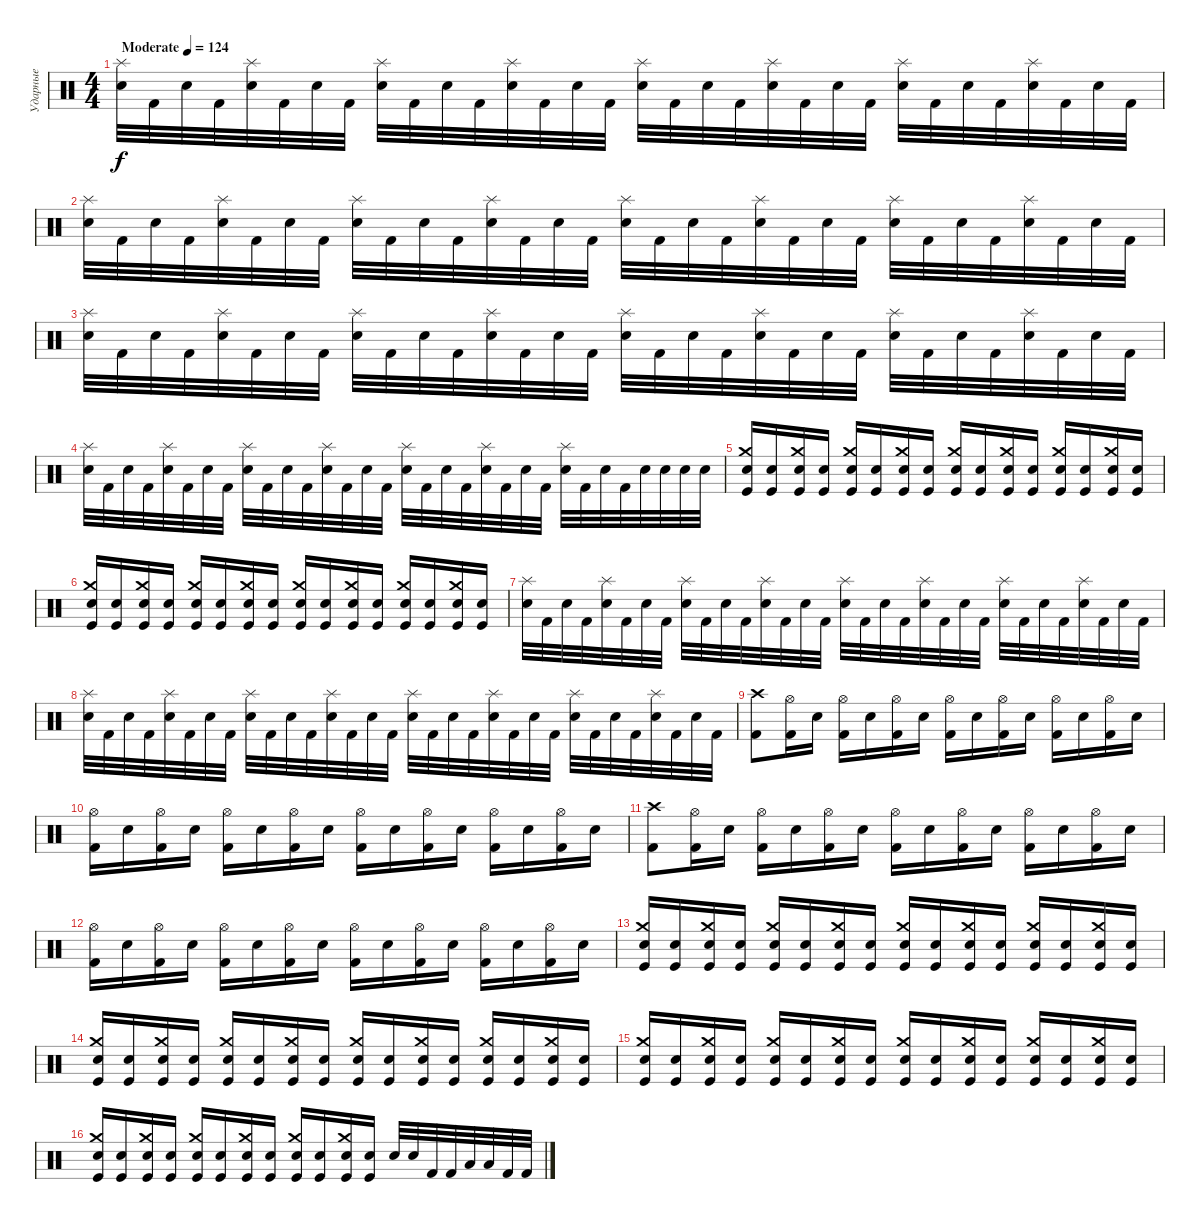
\track ("Ударные" "Ударные") {instrument percussion}
\staff {score}
\articulation defaults
\ts (4 4)
\tempo (124 "Moderate")
\clef neutral
\ks c
("Splash (hit)" "Electric Snare (hit)").32{dy f} "Kick (hit) 2".32 "Electric Snare (hit)".32 "Kick (hit) 2".32 ("Splash (hit)" "Electric Snare (hit)").32 "Kick (hit) 2".32 "Electric Snare (hit)".32 "Kick (hit) 2".32 ("Splash (hit)" "Electric Snare (hit)").32 "Kick (hit) 2".32 "Electric Snare (hit)".32 "Kick (hit) 2".32 ("Splash (hit)" "Electric Snare (hit)").32 "Kick (hit) 2".32 "Electric Snare (hit)".32 "Kick (hit) 2".32 ("Splash (hit)" "Electric Snare (hit)").32 "Kick (hit) 2".32 "Electric Snare (hit)".32 "Kick (hit) 2".32 ("Splash (hit)" "Electric Snare (hit)").32 "Kick (hit) 2".32 "Electric Snare (hit)".32 "Kick (hit) 2".32 ("Splash (hit)" "Electric Snare (hit)").32 "Kick (hit) 2".32 "Electric Snare (hit)".32 "Kick (hit) 2".32 ("Splash (hit)" "Electric Snare (hit)").32 "Kick (hit) 2".32 "Electric Snare (hit)".32 "Kick (hit) 2".32 |
("Splash (hit)" "Electric Snare (hit)").32 "Kick (hit) 2".32 "Electric Snare (hit)".32 "Kick (hit) 2".32 ("Splash (hit)" "Electric Snare (hit)").32 "Kick (hit) 2".32 "Electric Snare (hit)".32 "Kick (hit) 2".32 ("Splash (hit)" "Electric Snare (hit)").32 "Kick (hit) 2".32 "Electric Snare (hit)".32 "Kick (hit) 2".32 ("Splash (hit)" "Electric Snare (hit)").32 "Kick (hit) 2".32 "Electric Snare (hit)".32 "Kick (hit) 2".32 ("Splash (hit)" "Electric Snare (hit)").32 "Kick (hit) 2".32 "Electric Snare (hit)".32 "Kick (hit) 2".32 ("Splash (hit)" "Electric Snare (hit)").32 "Kick (hit) 2".32 "Electric Snare (hit)".32 "Kick (hit) 2".32 ("Splash (hit)" "Electric Snare (hit)").32 "Kick (hit) 2".32 "Electric Snare (hit)".32 "Kick (hit) 2".32 ("Splash (hit)" "Electric Snare (hit)").32 "Kick (hit) 2".32 "Electric Snare (hit)".32 "Kick (hit) 2".32 |
("Splash (hit)" "Electric Snare (hit)").32 "Kick (hit) 2".32 "Electric Snare (hit)".32 "Kick (hit) 2".32 ("Splash (hit)" "Electric Snare (hit)").32 "Kick (hit) 2".32 "Electric Snare (hit)".32 "Kick (hit) 2".32 ("Splash (hit)" "Electric Snare (hit)").32 "Kick (hit) 2".32 "Electric Snare (hit)".32 "Kick (hit) 2".32 ("Splash (hit)" "Electric Snare (hit)").32 "Kick (hit) 2".32 "Electric Snare (hit)".32 "Kick (hit) 2".32 ("Splash (hit)" "Electric Snare (hit)").32 "Kick (hit) 2".32 "Electric Snare (hit)".32 "Kick (hit) 2".32 ("Splash (hit)" "Electric Snare (hit)").32 "Kick (hit) 2".32 "Electric Snare (hit)".32 "Kick (hit) 2".32 ("Splash (hit)" "Electric Snare (hit)").32 "Kick (hit) 2".32 "Electric Snare (hit)".32 "Kick (hit) 2".32 ("Splash (hit)" "Electric Snare (hit)").32 "Kick (hit) 2".32 "Electric Snare (hit)".32 "Kick (hit) 2".32 |
("Splash (hit)" "Electric Snare (hit)").32 "Kick (hit) 2".32 "Electric Snare (hit)".32 "Kick (hit) 2".32 ("Splash (hit)" "Electric Snare (hit)").32 "Kick (hit) 2".32 "Electric Snare (hit)".32 "Kick (hit) 2".32 ("Splash (hit)" "Electric Snare (hit)").32 "Kick (hit) 2".32 "Electric Snare (hit)".32 "Kick (hit) 2".32 ("Splash (hit)" "Electric Snare (hit)").32 "Kick (hit) 2".32 "Electric Snare (hit)".32 "Kick (hit) 2".32 ("Splash (hit)" "Electric Snare (hit)").32 "Kick (hit) 2".32 "Electric Snare (hit)".32 "Kick (hit) 2".32 ("Splash (hit)" "Electric Snare (hit)").32 "Kick (hit) 2".32 "Electric Snare (hit)".32 "Kick (hit) 2".32 ("Splash (hit)" "Electric Snare (hit)").32 "Kick (hit) 2".32 "Electric Snare (hit)".32 "Kick (hit) 2".32 "Electric Snare (hit)".32 "Electric Snare (hit)".32 "Electric Snare (hit)".32 "Electric Snare (hit)".32 |
("Crash medium (hit)" "Electric Snare (hit)" "Kick (hit)").16 ("Electric Snare (hit)" "Kick (hit)").16 ("Crash medium (hit)" "Electric Snare (hit)" "Kick (hit)").16 ("Electric Snare (hit)" "Kick (hit)").16 ("Crash medium (hit)" "Electric Snare (hit)" "Kick (hit)").16 ("Electric Snare (hit)" "Kick (hit)").16 ("Crash medium (hit)" "Electric Snare (hit)" "Kick (hit)").16 ("Electric Snare (hit)" "Kick (hit)").16 ("Crash medium (hit)" "Electric Snare (hit)" "Kick (hit)").16 ("Electric Snare (hit)" "Kick (hit)").16 ("Crash medium (hit)" "Electric Snare (hit)" "Kick (hit)").16 ("Electric Snare (hit)" "Kick (hit)").16 ("Crash medium (hit)" "Electric Snare (hit)" "Kick (hit)").16 ("Electric Snare (hit)" "Kick (hit)").16 ("Crash medium (hit)" "Electric Snare (hit)" "Kick (hit)").16 ("Electric Snare (hit)" "Kick (hit)").16 |
("Crash medium (hit)" "Electric Snare (hit)" "Kick (hit)").16 ("Electric Snare (hit)" "Kick (hit)").16 ("Crash medium (hit)" "Electric Snare (hit)" "Kick (hit)").16 ("Electric Snare (hit)" "Kick (hit)").16 ("Crash medium (hit)" "Electric Snare (hit)" "Kick (hit)").16 ("Electric Snare (hit)" "Kick (hit)").16 ("Crash medium (hit)" "Electric Snare (hit)" "Kick (hit)").16 ("Electric Snare (hit)" "Kick (hit)").16 ("Crash medium (hit)" "Electric Snare (hit)" "Kick (hit)").16 ("Electric Snare (hit)" "Kick (hit)").16 ("Crash medium (hit)" "Electric Snare (hit)" "Kick (hit)").16 ("Electric Snare (hit)" "Kick (hit)").16 ("Crash medium (hit)" "Electric Snare (hit)" "Kick (hit)").16 ("Electric Snare (hit)" "Kick (hit)").16 ("Crash medium (hit)" "Electric Snare (hit)" "Kick (hit)").16 ("Electric Snare (hit)" "Kick (hit)").16 |
("Splash (hit)" "Electric Snare (hit)").32 "Kick (hit) 2".32 "Electric Snare (hit)".32 "Kick (hit) 2".32 ("Splash (hit)" "Electric Snare (hit)").32 "Kick (hit) 2".32 "Electric Snare (hit)".32 "Kick (hit) 2".32 ("Splash (hit)" "Electric Snare (hit)").32 "Kick (hit) 2".32 "Electric Snare (hit)".32 "Kick (hit) 2".32 ("Splash (hit)" "Electric Snare (hit)").32 "Kick (hit) 2".32 "Electric Snare (hit)".32 "Kick (hit) 2".32 ("Splash (hit)" "Electric Snare (hit)").32 "Kick (hit) 2".32 "Electric Snare (hit)".32 "Kick (hit) 2".32 ("Splash (hit)" "Electric Snare (hit)").32 "Kick (hit) 2".32 "Electric Snare (hit)".32 "Kick (hit) 2".32 ("Splash (hit)" "Electric Snare (hit)").32 "Kick (hit) 2".32 "Electric Snare (hit)".32 "Kick (hit) 2".32 ("Splash (hit)" "Electric Snare (hit)").32 "Kick (hit) 2".32 "Electric Snare (hit)".32 "Kick (hit) 2".32 |
("Splash (hit)" "Electric Snare (hit)").32 "Kick (hit) 2".32 "Electric Snare (hit)".32 "Kick (hit) 2".32 ("Splash (hit)" "Electric Snare (hit)").32 "Kick (hit) 2".32 "Electric Snare (hit)".32 "Kick (hit) 2".32 ("Splash (hit)" "Electric Snare (hit)").32 "Kick (hit) 2".32 "Electric Snare (hit)".32 "Kick (hit) 2".32 ("Splash (hit)" "Electric Snare (hit)").32 "Kick (hit) 2".32 "Electric Snare (hit)".32 "Kick (hit) 2".32 ("Splash (hit)" "Electric Snare (hit)").32 "Kick (hit) 2".32 "Electric Snare (hit)".32 "Kick (hit) 2".32 ("Splash (hit)" "Electric Snare (hit)").32 "Kick (hit) 2".32 "Electric Snare (hit)".32 "Kick (hit) 2".32 ("Splash (hit)" "Electric Snare (hit)").32 "Kick (hit) 2".32 "Electric Snare (hit)".32 "Kick (hit) 2".32 ("Splash (hit)" "Electric Snare (hit)").32 "Kick (hit) 2".32 "Electric Snare (hit)".32 "Kick (hit) 2".32 |
("Crash high (hit)" "Kick (hit) 2").8 ("Hi-Hat (open)" "Kick (hit) 2").16 "Electric Snare (hit)".16 ("Hi-Hat (open)" "Kick (hit) 2").16 "Electric Snare (hit)".16 ("Hi-Hat (open)" "Kick (hit) 2").16 "Electric Snare (hit)".16 ("Hi-Hat (open)" "Kick (hit) 2").16 "Electric Snare (hit)".16 ("Hi-Hat (open)" "Kick (hit) 2").16 "Electric Snare (hit)".16 ("Hi-Hat (open)" "Kick (hit) 2").16 "Electric Snare (hit)".16 ("Hi-Hat (open)" "Kick (hit) 2").16 "Electric Snare (hit)".16 |
("Hi-Hat (open)" "Kick (hit) 2").16 "Electric Snare (hit)".16 ("Hi-Hat (open)" "Kick (hit) 2").16 "Electric Snare (hit)".16 ("Hi-Hat (open)" "Kick (hit) 2").16 "Electric Snare (hit)".16 ("Hi-Hat (open)" "Kick (hit) 2").16 "Electric Snare (hit)".16 ("Hi-Hat (open)" "Kick (hit) 2").16 "Electric Snare (hit)".16 ("Hi-Hat (open)" "Kick (hit) 2").16 "Electric Snare (hit)".16 ("Hi-Hat (open)" "Kick (hit) 2").16 "Electric Snare (hit)".16 ("Hi-Hat (open)" "Kick (hit) 2").16 "Electric Snare (hit)".16 |
("Crash high (hit)" "Kick (hit) 2").8 ("Hi-Hat (open)" "Kick (hit) 2").16 "Electric Snare (hit)".16 ("Hi-Hat (open)" "Kick (hit) 2").16 "Electric Snare (hit)".16 ("Hi-Hat (open)" "Kick (hit) 2").16 "Electric Snare (hit)".16 ("Hi-Hat (open)" "Kick (hit) 2").16 "Electric Snare (hit)".16 ("Hi-Hat (open)" "Kick (hit) 2").16 "Electric Snare (hit)".16 ("Hi-Hat (open)" "Kick (hit) 2").16 "Electric Snare (hit)".16 ("Hi-Hat (open)" "Kick (hit) 2").16 "Electric Snare (hit)".16 |
("Hi-Hat (open)" "Kick (hit) 2").16 "Electric Snare (hit)".16 ("Hi-Hat (open)" "Kick (hit) 2").16 "Electric Snare (hit)".16 ("Hi-Hat (open)" "Kick (hit) 2").16 "Electric Snare (hit)".16 ("Hi-Hat (open)" "Kick (hit) 2").16 "Electric Snare (hit)".16 ("Hi-Hat (open)" "Kick (hit) 2").16 "Electric Snare (hit)".16 ("Hi-Hat (open)" "Kick (hit) 2").16 "Electric Snare (hit)".16 ("Hi-Hat (open)" "Kick (hit) 2").16 "Electric Snare (hit)".16 ("Hi-Hat (open)" "Kick (hit) 2").16 "Electric Snare (hit)".16 |
("Crash medium (hit)" "Electric Snare (hit)" "Kick (hit)").16 ("Electric Snare (hit)" "Kick (hit)").16 ("Crash medium (hit)" "Electric Snare (hit)" "Kick (hit)").16 ("Electric Snare (hit)" "Kick (hit)").16 ("Crash medium (hit)" "Electric Snare (hit)" "Kick (hit)").16 ("Electric Snare (hit)" "Kick (hit)").16 ("Crash medium (hit)" "Electric Snare (hit)" "Kick (hit)").16 ("Electric Snare (hit)" "Kick (hit)").16 ("Crash medium (hit)" "Electric Snare (hit)" "Kick (hit)").16 ("Electric Snare (hit)" "Kick (hit)").16 ("Crash medium (hit)" "Electric Snare (hit)" "Kick (hit)").16 ("Electric Snare (hit)" "Kick (hit)").16 ("Crash medium (hit)" "Electric Snare (hit)" "Kick (hit)").16 ("Electric Snare (hit)" "Kick (hit)").16 ("Crash medium (hit)" "Electric Snare (hit)" "Kick (hit)").16 ("Electric Snare (hit)" "Kick (hit)").16 |
("Crash medium (hit)" "Electric Snare (hit)" "Kick (hit)").16 ("Electric Snare (hit)" "Kick (hit)").16 ("Crash medium (hit)" "Electric Snare (hit)" "Kick (hit)").16 ("Electric Snare (hit)" "Kick (hit)").16 ("Crash medium (hit)" "Electric Snare (hit)" "Kick (hit)").16 ("Electric Snare (hit)" "Kick (hit)").16 ("Crash medium (hit)" "Electric Snare (hit)" "Kick (hit)").16 ("Electric Snare (hit)" "Kick (hit)").16 ("Crash medium (hit)" "Electric Snare (hit)" "Kick (hit)").16 ("Electric Snare (hit)" "Kick (hit)").16 ("Crash medium (hit)" "Electric Snare (hit)" "Kick (hit)").16 ("Electric Snare (hit)" "Kick (hit)").16 ("Crash medium (hit)" "Electric Snare (hit)" "Kick (hit)").16 ("Electric Snare (hit)" "Kick (hit)").16 ("Crash medium (hit)" "Electric Snare (hit)" "Kick (hit)").16 ("Electric Snare (hit)" "Kick (hit)").16 |
("Crash medium (hit)" "Electric Snare (hit)" "Kick (hit)").16 ("Electric Snare (hit)" "Kick (hit)").16 ("Crash medium (hit)" "Electric Snare (hit)" "Kick (hit)").16 ("Electric Snare (hit)" "Kick (hit)").16 ("Crash medium (hit)" "Electric Snare (hit)" "Kick (hit)").16 ("Electric Snare (hit)" "Kick (hit)").16 ("Crash medium (hit)" "Electric Snare (hit)" "Kick (hit)").16 ("Electric Snare (hit)" "Kick (hit)").16 ("Crash medium (hit)" "Electric Snare (hit)" "Kick (hit)").16 ("Electric Snare (hit)" "Kick (hit)").16 ("Crash medium (hit)" "Electric Snare (hit)" "Kick (hit)").16 ("Electric Snare (hit)" "Kick (hit)").16 ("Crash medium (hit)" "Electric Snare (hit)" "Kick (hit)").16 ("Electric Snare (hit)" "Kick (hit)").16 ("Crash medium (hit)" "Electric Snare (hit)" "Kick (hit)").16 ("Electric Snare (hit)" "Kick (hit)").16 |
("Crash medium (hit)" "Electric Snare (hit)" "Kick (hit)").16 ("Electric Snare (hit)" "Kick (hit)").16 ("Crash medium (hit)" "Electric Snare (hit)" "Kick (hit)").16 ("Electric Snare (hit)" "Kick (hit)").16 ("Crash medium (hit)" "Electric Snare (hit)" "Kick (hit)").16 ("Electric Snare (hit)" "Kick (hit)").16 ("Crash medium (hit)" "Electric Snare (hit)" "Kick (hit)").16 ("Electric Snare (hit)" "Kick (hit)").16 ("Crash medium (hit)" "Electric Snare (hit)" "Kick (hit)").16 ("Electric Snare (hit)" "Kick (hit)").16 ("Crash medium (hit)" "Electric Snare (hit)" "Kick (hit)").16 ("Electric Snare (hit)" "Kick (hit)").16 "Electric Snare (hit)".32 "Electric Snare (hit)".32 "Kick (hit) 2".32 "Kick (hit) 2".32 "Low Tom (hit)".32 "Low Tom (hit)".32 "Kick (hit) 2".32 "Kick (hit) 2".32
